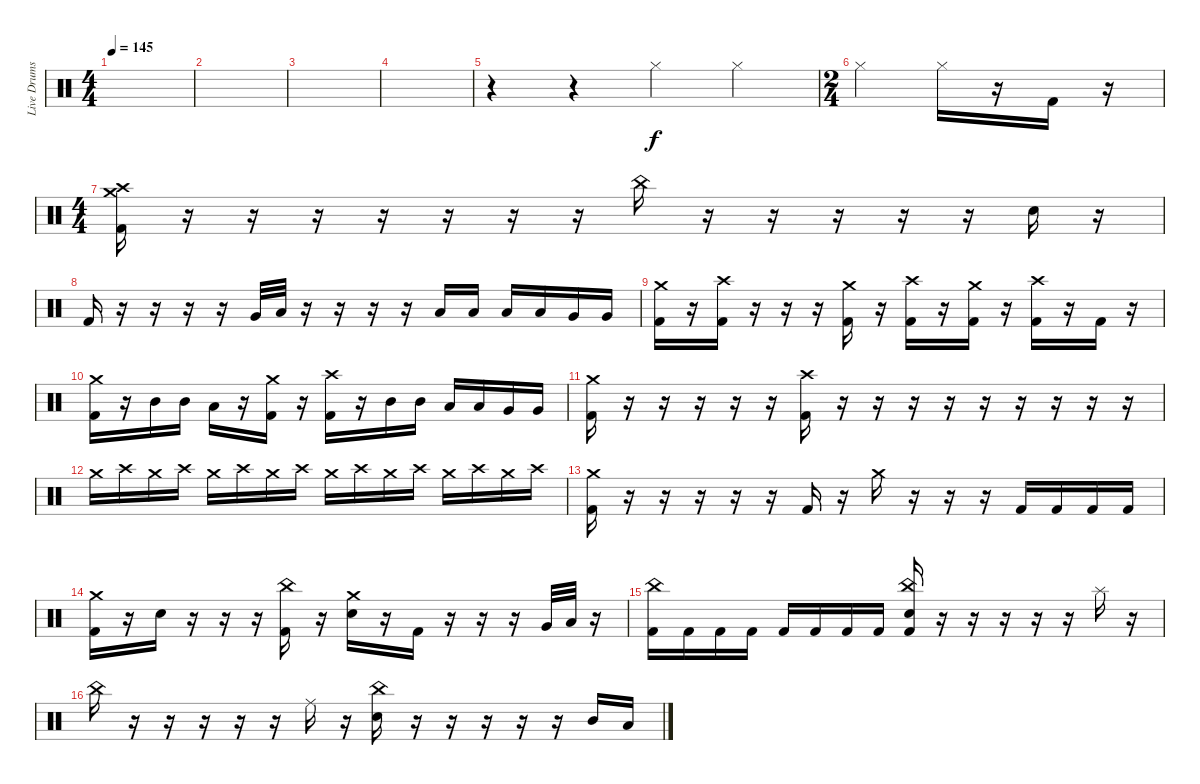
\track ("Live Drums" "Live Drums") {instrument percussion}
\staff {score}
\articulation defaults
\ts (4 4)
\tempo 145
\clef neutral
\ks c
|
|
|
|
r.4 r.4 "Hi-Hat (closed)".4 "Hi-Hat (closed)".4 |
\ts (2 4)
"Hi-Hat (closed)".4 "Hi-Hat (closed)".16 r.16 "Kick (hit) 2".16 r.16 |
\ts (4 4)
("Crash medium (hit)" "Crash high (hit)" "Kick (hit) 2").16 r.16 r.16 r.16 r.16 r.16 r.16 r.16 "China (hit)".16 r.16 r.16 r.16 r.16 r.16 "Snare (hit) 2".16 r.16 |
"Kick (hit) 2".16 r.16 r.16 r.16 r.16 "Very Low Tom (hit)".32 "Low Tom (hit)".32 r.16 r.16 r.16 r.16 "Low Tom (hit)".16 "Low Tom (hit)".16 "Low Floor Tom (hit)".16 "Low Floor Tom (hit)".16 "Very Low Tom (hit)".16 "Very Low Tom (hit)".16 |
("Crash medium (hit)" "Kick (hit) 2").16 r.16 ("Crash high (hit)" "Kick (hit) 2").16 r.16 r.16 r.16 ("Crash medium (hit)" "Kick (hit) 2").16 r.16 ("Crash high (hit)" "Kick (hit) 2").16 r.16 ("Crash medium (hit)" "Kick (hit) 2").16 r.16 ("Crash high (hit)" "Kick (hit) 2").16 r.16 "Kick (hit) 2".16 r.16 |
("Crash medium (hit)" "Kick (hit) 2").16 r.16 "Mid Tom (hit)".16 "Mid Tom (hit)".16 "Low Tom (hit)".16 r.16 ("Crash medium (hit)" "Kick (hit) 2").16 r.16 ("Crash high (hit)" "Kick (hit) 2").16 r.16 "Mid Tom (hit)".16 "Mid Tom (hit)".16 "Low Tom (hit)".16 "Low Tom (hit)".16 "Very Low Tom (hit)".16 "Very Low Tom (hit)".16 |
("Crash medium (hit)" "Kick (hit) 2").16 r.16 r.16 r.16 r.16 r.16 ("Crash high (hit)" "Kick (hit) 2").16 r.16 r.16 r.16 r.16 r.16 r.16 r.16 r.16 r.16 |
"Crash medium (hit)".16{volume 5} "Crash high (hit)".16{volume 15} "Crash medium (hit)".16 "Crash high (hit)".16 "Crash medium (hit)".16 "Crash high (hit)".16 "Crash medium (hit)".16 "Crash high (hit)".16 "Crash medium (hit)".16 "Crash high (hit)".16 "Crash medium (hit)".16 "Crash high (hit)".16 "Crash medium (hit)".16 "Crash high (hit)".16 "Crash medium (hit)".16 "Crash high (hit)".16 |
("Crash medium (hit)" "Kick (hit) 2").16 r.16 r.16 r.16 r.16 r.16 "Kick (hit) 2".16 r.16 "Crash medium (hit)".16 r.16 r.16 r.16 "Kick (hit) 2".16 "Kick (hit) 2".16 "Kick (hit) 2".16 "Kick (hit) 2".16 |
("Crash medium (hit)" "Kick (hit) 2").16 r.16 "Snare (hit) 2".16 r.16 r.16 r.16 ("China (hit)" "Kick (hit) 2").16 r.16 ("Crash medium (hit)" "Snare (hit) 2").16 r.16 "Kick (hit) 2".16 r.16 r.16 r.16 "Very Low Tom (hit)".32 "Low Tom (hit)".32 r.16 |
("China (hit)" "Kick (hit) 2").16 "Kick (hit) 2".16 "Kick (hit) 2".16 "Kick (hit) 2".16 "Kick (hit) 2".16 "Kick (hit) 2".16 "Kick (hit) 2".16 "Kick (hit) 2".16 ("China (hit)" "Snare (hit) 2" "Kick (hit) 2").16 r.16 r.16 r.16 r.16 r.16 "Splash (hit)".16 r.16 |
"China (hit)".16 r.16 r.16 r.16 r.16 r.16 "Ride (middle)".16 r.16 ("China (hit)" "Snare (hit) 2").16 r.16 r.16 r.16 r.16 r.16 "Mid Tom (hit)".16 "Low Tom (hit)".16
